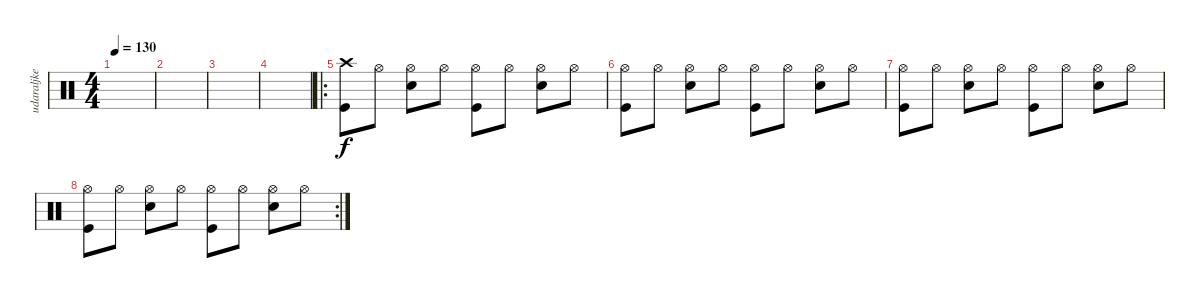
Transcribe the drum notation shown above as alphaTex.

\track ("udaraljke" "udaraljke") {instrument percussion}
\staff {score}
\articulation defaults
\ts (4 4)
\tempo 130
\clef neutral
\ks c
|
|
|
|
\ro
("Crash high (hit)" "Kick (hit)").8 "Hi-Hat (open)".8 ("Hi-Hat (open)" "Electric Snare (hit)").8 "Hi-Hat (open)".8 ("Hi-Hat (open)" "Kick (hit)").8 "Hi-Hat (open)".8 ("Hi-Hat (open)" "Electric Snare (hit)").8 "Hi-Hat (open)".8 |
("Hi-Hat (open)" "Kick (hit)").8 "Hi-Hat (open)".8 ("Hi-Hat (open)" "Electric Snare (hit)").8 "Hi-Hat (open)".8 ("Hi-Hat (open)" "Kick (hit)").8 "Hi-Hat (open)".8 ("Hi-Hat (open)" "Electric Snare (hit)").8 "Hi-Hat (open)".8 |
("Hi-Hat (open)" "Kick (hit)").8 "Hi-Hat (open)".8 ("Hi-Hat (open)" "Electric Snare (hit)").8 "Hi-Hat (open)".8 ("Hi-Hat (open)" "Kick (hit)").8 "Hi-Hat (open)".8 ("Hi-Hat (open)" "Electric Snare (hit)").8 "Hi-Hat (open)".8 |
\rc 2
("Hi-Hat (open)" "Kick (hit)").8 "Hi-Hat (open)".8 ("Hi-Hat (open)" "Electric Snare (hit)").8 "Hi-Hat (open)".8 ("Hi-Hat (open)" "Kick (hit)").8 "Hi-Hat (open)".8 ("Hi-Hat (open)" "Electric Snare (hit)").8 "Hi-Hat (open)".8
